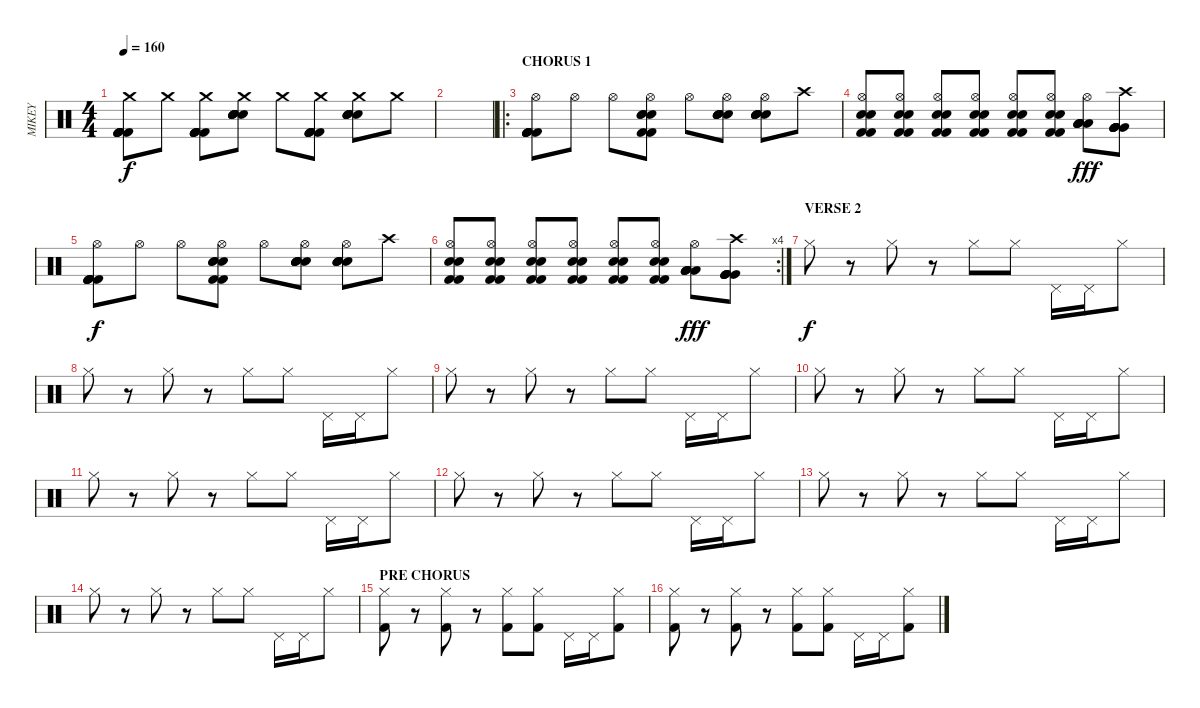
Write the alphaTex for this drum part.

\track ("MIKEY" "MIKEY") {instrument percussion}
\staff {score}
\articulation defaults
\ts (4 4)
\tempo 160
\clef neutral
\ks c
("Kick (hit) 2" "Kick (hit) 2" "Kick (hit) 2" "Kick (hit) 2" "Kick (hit) 2" "Crash medium (hit)").8{dy f} "Crash medium (hit)".8 ("Kick (hit) 2" "Kick (hit) 2" "Kick (hit) 2" "Kick (hit) 2" "Kick (hit) 2" "Crash medium (hit)").8 ("Snare (hit) 2" "Snare (hit) 2" "Snare (hit) 2" "Snare (hit) 2" "Snare (hit) 2" "Crash medium (hit)").8 "Crash medium (hit)".8 ("Kick (hit) 2" "Kick (hit) 2" "Kick (hit) 2" "Kick (hit) 2" "Kick (hit) 2" "Crash medium (hit)").8 ("Snare (hit) 2" "Snare (hit) 2" "Snare (hit) 2" "Snare (hit) 2" "Snare (hit) 2" "Crash medium (hit)").8 "Crash medium (hit)".8 |
|
\ro
\section ("" "CHORUS 1")
("Kick (hit) 2" "Kick (hit) 2" "Kick (hit) 2" "Kick (hit) 2" "Kick (hit) 2" "Hi-Hat (open)").8 "Hi-Hat (open)".8 "Hi-Hat (open)".8 ("Snare (hit) 2" "Kick (hit) 2" "Snare (hit) 2" "Kick (hit) 2" "Snare (hit) 2" "Hi-Hat (open)").8 "Hi-Hat (open)".8 ("Snare (hit) 2" "Snare (hit) 2" "Snare (hit) 2" "Snare (hit) 2" "Snare (hit) 2" "Hi-Hat (open)").8 ("Snare (hit) 2" "Snare (hit) 2" "Snare (hit) 2" "Snare (hit) 2" "Snare (hit) 2" "Hi-Hat (open)").8 "Crash high (hit)".8 |
("Electric Snare (hit)" "Kick (hit) 2" "Kick (hit) 2" "Electric Snare (hit)" "Hi-Hat (open)").8 ("Electric Snare (hit)" "Kick (hit) 2" "Kick (hit) 2" "Electric Snare (hit)" "Hi-Hat (open)").8 ("Electric Snare (hit)" "Kick (hit) 2" "Kick (hit) 2" "Electric Snare (hit)" "Hi-Hat (open)").8 ("Electric Snare (hit)" "Kick (hit) 2" "Kick (hit) 2" "Electric Snare (hit)" "Hi-Hat (open)").8 ("Electric Snare (hit)" "Kick (hit) 2" "Kick (hit) 2" "Electric Snare (hit)" "Hi-Hat (open)").8 ("Electric Snare (hit)" "Kick (hit) 2" "Kick (hit) 2" "Electric Snare (hit)" "Hi-Hat (open)").8 ("Low Floor Tom (hit)" "Low Floor Tom (hit)" "Low Floor Tom (hit)" "Low Floor Tom (hit)" "Low Floor Tom (hit)" "Hi-Hat (open)").8{dy fff} ("Very Low Tom (hit)" "Very Low Tom (hit)" "Very Low Tom (hit)" "Very Low Tom (hit)" "Very Low Tom (hit)" "Crash high (hit)").8 |
("Kick (hit) 2" "Kick (hit) 2" "Kick (hit) 2" "Kick (hit) 2" "Kick (hit) 2" "Hi-Hat (open)").8{dy f} "Hi-Hat (open)".8 "Hi-Hat (open)".8 ("Snare (hit) 2" "Kick (hit) 2" "Snare (hit) 2" "Kick (hit) 2" "Snare (hit) 2" "Hi-Hat (open)").8 "Hi-Hat (open)".8 ("Snare (hit) 2" "Snare (hit) 2" "Snare (hit) 2" "Snare (hit) 2" "Snare (hit) 2" "Hi-Hat (open)").8 ("Snare (hit) 2" "Snare (hit) 2" "Snare (hit) 2" "Snare (hit) 2" "Snare (hit) 2" "Hi-Hat (open)").8 "Crash high (hit)".8 |
\rc 4
("Electric Snare (hit)" "Kick (hit) 2" "Kick (hit) 2" "Electric Snare (hit)" "Hi-Hat (open)").8 ("Electric Snare (hit)" "Kick (hit) 2" "Kick (hit) 2" "Electric Snare (hit)" "Hi-Hat (open)").8 ("Electric Snare (hit)" "Kick (hit) 2" "Kick (hit) 2" "Electric Snare (hit)" "Hi-Hat (open)").8 ("Electric Snare (hit)" "Kick (hit) 2" "Kick (hit) 2" "Electric Snare (hit)" "Hi-Hat (open)").8 ("Electric Snare (hit)" "Kick (hit) 2" "Kick (hit) 2" "Electric Snare (hit)" "Hi-Hat (open)").8 ("Electric Snare (hit)" "Kick (hit) 2" "Kick (hit) 2" "Electric Snare (hit)" "Hi-Hat (open)").8 ("Low Floor Tom (hit)" "Low Floor Tom (hit)" "Low Floor Tom (hit)" "Low Floor Tom (hit)" "Low Floor Tom (hit)" "Hi-Hat (open)").8{dy fff} ("Very Low Tom (hit)" "Very Low Tom (hit)" "Very Low Tom (hit)" "Very Low Tom (hit)" "Very Low Tom (hit)" "Crash high (hit)").8 |
\section ("" "VERSE 2")
"Hi-Hat (closed)".8{dy f} r.8 "Hi-Hat (closed)".8 r.8 "Hi-Hat (closed)".8 "Hi-Hat (closed)".8 "Pedal Hi-Hat (hit)".16 "Pedal Hi-Hat (hit)".16 "Hi-Hat (closed)".8 |
"Hi-Hat (closed)".8 r.8 "Hi-Hat (closed)".8 r.8 "Hi-Hat (closed)".8 "Hi-Hat (closed)".8 "Pedal Hi-Hat (hit)".16 "Pedal Hi-Hat (hit)".16 "Hi-Hat (closed)".8 |
"Hi-Hat (closed)".8 r.8 "Hi-Hat (closed)".8 r.8 "Hi-Hat (closed)".8 "Hi-Hat (closed)".8 "Pedal Hi-Hat (hit)".16 "Pedal Hi-Hat (hit)".16 "Hi-Hat (closed)".8 |
"Hi-Hat (closed)".8 r.8 "Hi-Hat (closed)".8 r.8 "Hi-Hat (closed)".8 "Hi-Hat (closed)".8 "Pedal Hi-Hat (hit)".16 "Pedal Hi-Hat (hit)".16 "Hi-Hat (closed)".8 |
"Hi-Hat (closed)".8 r.8 "Hi-Hat (closed)".8 r.8 "Hi-Hat (closed)".8 "Hi-Hat (closed)".8 "Pedal Hi-Hat (hit)".16 "Pedal Hi-Hat (hit)".16 "Hi-Hat (closed)".8 |
"Hi-Hat (closed)".8 r.8 "Hi-Hat (closed)".8 r.8 "Hi-Hat (closed)".8 "Hi-Hat (closed)".8 "Pedal Hi-Hat (hit)".16 "Pedal Hi-Hat (hit)".16 "Hi-Hat (closed)".8 |
"Hi-Hat (closed)".8 r.8 "Hi-Hat (closed)".8 r.8 "Hi-Hat (closed)".8 "Hi-Hat (closed)".8 "Pedal Hi-Hat (hit)".16 "Pedal Hi-Hat (hit)".16 "Hi-Hat (closed)".8 |
"Hi-Hat (closed)".8 r.8 "Hi-Hat (closed)".8 r.8 "Hi-Hat (closed)".8 "Hi-Hat (closed)".8 "Pedal Hi-Hat (hit)".16 "Pedal Hi-Hat (hit)".16 "Hi-Hat (closed)".8 |
\section ("" "PRE CHORUS")
("Kick (hit) 2" "Hi-Hat (closed)").8 r.8 ("Kick (hit) 2" "Hi-Hat (closed)").8 r.8 ("Kick (hit) 2" "Hi-Hat (closed)").8 ("Kick (hit) 2" "Hi-Hat (closed)").8 "Pedal Hi-Hat (hit)".16 "Pedal Hi-Hat (hit)".16 ("Kick (hit) 2" "Hi-Hat (closed)").8 |
("Kick (hit) 2" "Hi-Hat (closed)").8 r.8 ("Kick (hit) 2" "Hi-Hat (closed)").8 r.8 ("Kick (hit) 2" "Hi-Hat (closed)").8 ("Kick (hit) 2" "Hi-Hat (closed)").8 "Pedal Hi-Hat (hit)".16 "Pedal Hi-Hat (hit)".16 ("Kick (hit) 2" "Hi-Hat (closed)").8
